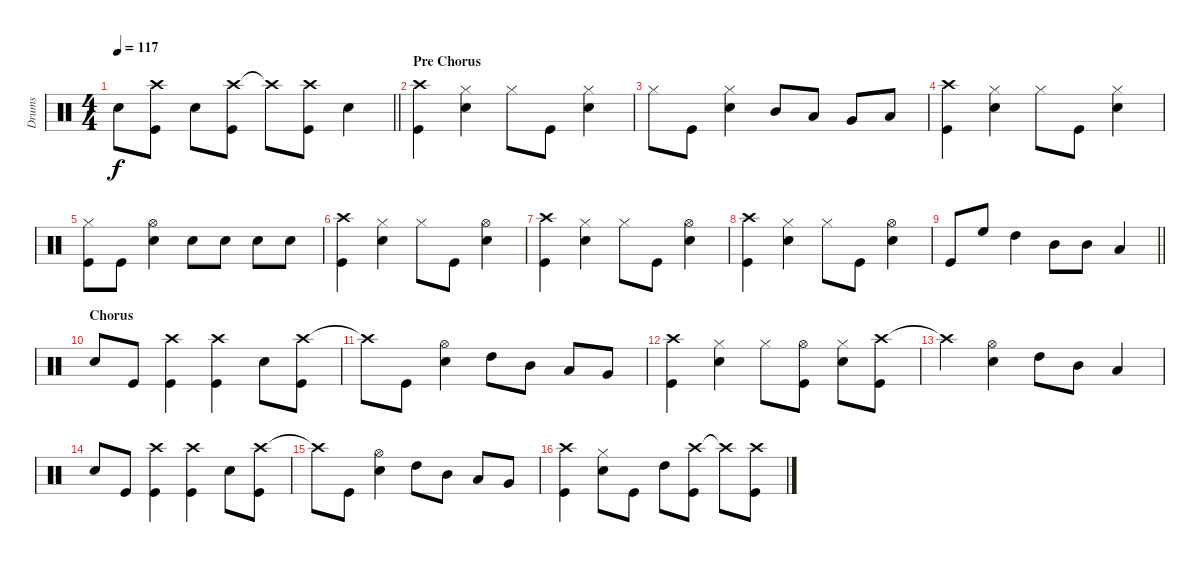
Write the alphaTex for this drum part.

\track ("Drums" "Drums") {instrument percussion}
\staff {score}
\articulation defaults
\ts (4 4)
\tempo 117
\clef neutral
\barLineRight lightlight
\ks c "Snare (hit) 2".8{dy f}
("Crash high (hit)" "Kick (hit)").8 "Snare (hit) 2".8 ("Crash high (hit)" "Kick (hit)").8 "Crash high (hit)"{t}.8 ("Crash high (hit)" "Kick (hit)").8 "Snare (hit) 2".4 |
\section ("" "Pre Chorus")
("Crash high (hit)" "Kick (hit)").4 ("Hi-Hat (closed)" "Snare (hit) 2").4 "Hi-Hat (closed)".8 "Kick (hit)".8 ("Hi-Hat (closed)" "Snare (hit) 2").4 |
"Hi-Hat (closed)".8 "Kick (hit)".8 ("Hi-Hat (closed)" "Snare (hit) 2").4 "Mid Tom (hit)".8 "Low Tom (hit)".8 "Very Low Tom (hit)".8 "Low Floor Tom (hit)".8 |
("Crash high (hit)" "Kick (hit)").4 ("Hi-Hat (closed)" "Snare (hit) 2").4 "Hi-Hat (closed)".8 "Kick (hit)".8 ("Hi-Hat (closed)" "Snare (hit) 2").4 |
("Hi-Hat (closed)" "Kick (hit)").8 "Kick (hit)".8 ("Hi-Hat (open)" "Snare (hit) 2").4 "Snare (hit) 2".8 "Snare (hit) 2".8 "Snare (hit) 2".8 "Snare (hit) 2".8 |
("Kick (hit)" "Crash high (hit)").4 ("Hi-Hat (closed)" "Snare (hit) 2").4 "Hi-Hat (closed)".8 "Kick (hit)".8 ("Hi-Hat (open)" "Snare (hit) 2").4 |
("Kick (hit)" "Crash high (hit)").4 ("Hi-Hat (closed)" "Snare (hit) 2").4 "Hi-Hat (closed)".8 "Kick (hit)".8 ("Hi-Hat (open)" "Snare (hit) 2").4 |
("Kick (hit)" "Crash high (hit)").4 ("Hi-Hat (closed)" "Snare (hit) 2").4 "Hi-Hat (closed)".8 "Kick (hit)".8 ("Hi-Hat (open)" "Snare (hit) 2").4 |
\barLineRight lightlight "Kick (hit)".8 "High Floor Tom (hit)".8 "High Tom (hit)".4 "Mid Tom (hit)".8 "Mid Tom (hit)".8 "Low Tom (hit)".4
|
\section ("" "Chorus")
"Snare (hit) 2".8 "Kick (hit)".8 ("Crash high (hit)" "Kick (hit)").4 ("Crash high (hit)" "Kick (hit)").4 "Snare (hit) 2".8 ("Crash high (hit)" "Kick (hit)").8 |
"Crash high (hit)"{t}.8 "Kick (hit)".8 ("Hi-Hat (open)" "Snare (hit) 2").4 "High Tom (hit)".8 "Mid Tom (hit)".8 "Low Tom (hit)".8 "Very Low Tom (hit)".8 |
("Crash high (hit)" "Kick (hit)").4 ("Hi-Hat (closed)" "Snare (hit) 2").4 "Hi-Hat (closed)".8 ("Hi-Hat (open)" "Kick (hit)").8 ("Hi-Hat (closed)" "Snare (hit) 2").8 ("Crash high (hit)" "Kick (hit)").8 |
"Crash high (hit)"{t}.4 ("Hi-Hat (open)" "Snare (hit) 2").4 "High Tom (hit)".8 "Mid Tom (hit)".8 "Low Tom (hit)".4 |
"Snare (hit) 2".8 "Kick (hit)".8 ("Crash high (hit)" "Kick (hit)").4 ("Crash high (hit)" "Kick (hit)").4 "Snare (hit) 2".8 ("Crash high (hit)" "Kick (hit)").8 |
"Crash high (hit)"{t}.8 "Kick (hit)".8 ("Hi-Hat (open)" "Snare (hit) 2").4 "High Tom (hit)".8 "Mid Tom (hit)".8 "Low Tom (hit)".8 "Very Low Tom (hit)".8 |
("Crash high (hit)" "Kick (hit)").4 ("Hi-Hat (closed)" "Snare (hit) 2").8 "Kick (hit)".8 "High Tom (hit)".8 ("Crash high (hit)" "Kick (hit)").8 "Crash high (hit)"{t}.8 ("Crash high (hit)" "Kick (hit)").8
